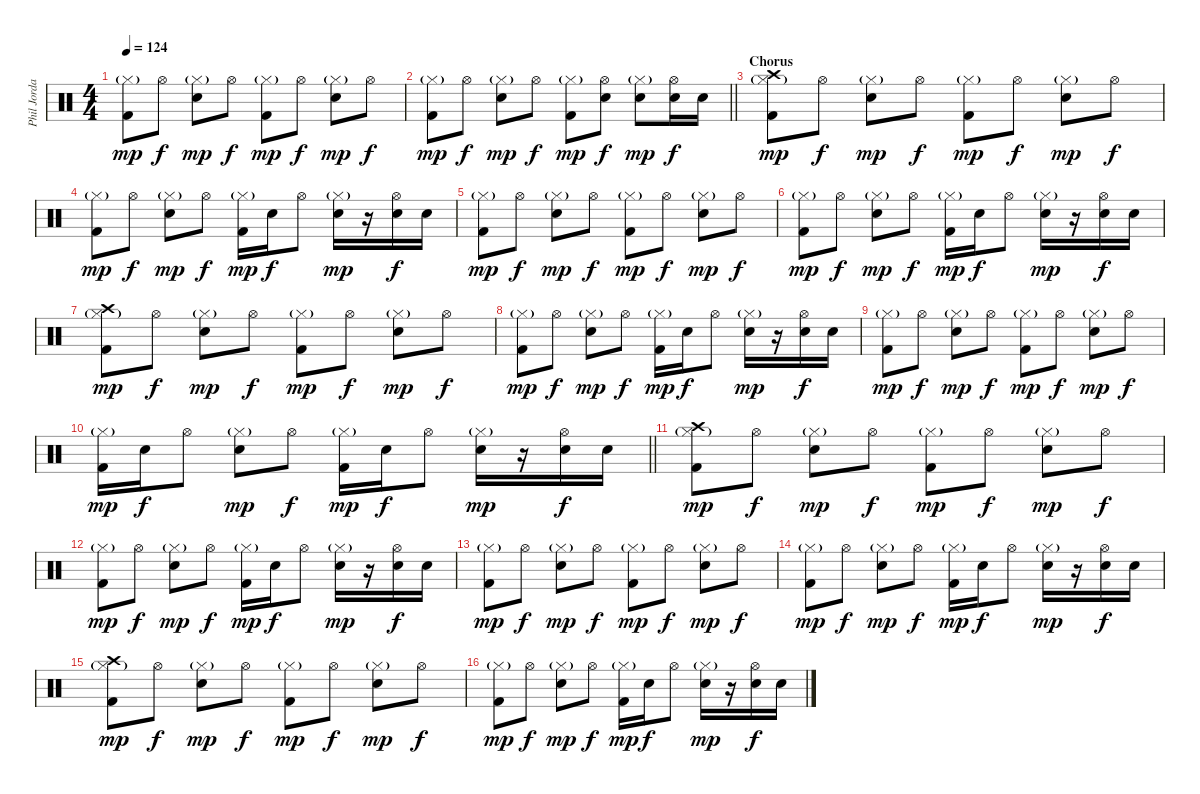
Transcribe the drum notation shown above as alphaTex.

\track ("Phil Jordan (Drums)" "Phil Jorda") {instrument percussion}
\staff {score}
\articulation defaults
\ts (4 4)
\tempo 124
\clef neutral
\ks c
("Hi-Hat (closed)"{g} "Kick (hit) 2").8{dy mp} "Hi-Hat (open)".8{dy f} ("Hi-Hat (closed)"{g} "Electric Snare (hit)").8{dy mp} "Hi-Hat (open)".8{dy f} ("Hi-Hat (closed)"{g} "Kick (hit) 2").8{dy mp} "Hi-Hat (open)".8{dy f} ("Hi-Hat (closed)"{g} "Electric Snare (hit)").8{dy mp} "Hi-Hat (open)".8{dy f} |
\barLineRight lightlight
("Hi-Hat (closed)"{g} "Kick (hit) 2").8{dy mp} "Hi-Hat (open)".8{dy f} ("Hi-Hat (closed)"{g} "Electric Snare (hit)").8{dy mp} "Hi-Hat (open)".8{dy f} ("Hi-Hat (closed)"{g} "Kick (hit) 2").8{dy mp} ("Hi-Hat (open)" "Electric Snare (hit)").8{dy f} ("Hi-Hat (closed)"{g} "Electric Snare (hit)").8{dy mp} ("Hi-Hat (open)" "Electric Snare (hit)").16{dy f} "Electric Snare (hit)".16 |
\section ("" "Chorus")
("Crash high (hit)" "Hi-Hat (closed)"{g} "Kick (hit) 2").8{dy mp} "Hi-Hat (open)".8{dy f} ("Hi-Hat (closed)"{g} "Electric Snare (hit)").8{dy mp} "Hi-Hat (open)".8{dy f} ("Hi-Hat (closed)"{g} "Kick (hit) 2").8{dy mp} "Hi-Hat (open)".8{dy f} ("Hi-Hat (closed)"{g} "Electric Snare (hit)").8{dy mp} "Hi-Hat (open)".8{dy f} |
("Hi-Hat (closed)"{g} "Kick (hit) 2").8{dy mp} "Hi-Hat (open)".8{dy f} ("Hi-Hat (closed)"{g} "Electric Snare (hit)").8{dy mp} "Hi-Hat (open)".8{dy f} ("Hi-Hat (closed)"{g} "Kick (hit) 2").16{dy mp} "Electric Snare (hit)".16{dy f} "Hi-Hat (open)".8 ("Hi-Hat (closed)"{g} "Electric Snare (hit)").16{dy mp} r.16 ("Hi-Hat (open)" "Electric Snare (hit)").16{dy f} "Electric Snare (hit)".16 |
("Hi-Hat (closed)"{g} "Kick (hit) 2").8{dy mp} "Hi-Hat (open)".8{dy f} ("Hi-Hat (closed)"{g} "Electric Snare (hit)").8{dy mp} "Hi-Hat (open)".8{dy f} ("Hi-Hat (closed)"{g} "Kick (hit) 2").8{dy mp} "Hi-Hat (open)".8{dy f} ("Hi-Hat (closed)"{g} "Electric Snare (hit)").8{dy mp} "Hi-Hat (open)".8{dy f} |
("Hi-Hat (closed)"{g} "Kick (hit) 2").8{dy mp} "Hi-Hat (open)".8{dy f} ("Hi-Hat (closed)"{g} "Electric Snare (hit)").8{dy mp} "Hi-Hat (open)".8{dy f} ("Hi-Hat (closed)"{g} "Kick (hit) 2").16{dy mp} "Electric Snare (hit)".16{dy f} "Hi-Hat (open)".8 ("Hi-Hat (closed)"{g} "Electric Snare (hit)").16{dy mp} r.16 ("Hi-Hat (open)" "Electric Snare (hit)").16{dy f} "Electric Snare (hit)".16 |
("Crash high (hit)" "Hi-Hat (closed)"{g} "Kick (hit) 2").8{dy mp} "Hi-Hat (open)".8{dy f} ("Hi-Hat (closed)"{g} "Electric Snare (hit)").8{dy mp} "Hi-Hat (open)".8{dy f} ("Hi-Hat (closed)"{g} "Kick (hit) 2").8{dy mp} "Hi-Hat (open)".8{dy f} ("Hi-Hat (closed)"{g} "Electric Snare (hit)").8{dy mp} "Hi-Hat (open)".8{dy f} |
("Hi-Hat (closed)"{g} "Kick (hit) 2").8{dy mp} "Hi-Hat (open)".8{dy f} ("Hi-Hat (closed)"{g} "Electric Snare (hit)").8{dy mp} "Hi-Hat (open)".8{dy f} ("Hi-Hat (closed)"{g} "Kick (hit) 2").16{dy mp} "Electric Snare (hit)".16{dy f} "Hi-Hat (open)".8 ("Hi-Hat (closed)"{g} "Electric Snare (hit)").16{dy mp} r.16 ("Hi-Hat (open)" "Electric Snare (hit)").16{dy f} "Electric Snare (hit)".16 |
("Hi-Hat (closed)"{g} "Kick (hit) 2").8{dy mp} "Hi-Hat (open)".8{dy f} ("Hi-Hat (closed)"{g} "Electric Snare (hit)").8{dy mp} "Hi-Hat (open)".8{dy f} ("Hi-Hat (closed)"{g} "Kick (hit) 2").8{dy mp} "Hi-Hat (open)".8{dy f} ("Hi-Hat (closed)"{g} "Electric Snare (hit)").8{dy mp} "Hi-Hat (open)".8{dy f} |
\barLineRight lightlight
("Hi-Hat (closed)"{g} "Kick (hit) 2").16{dy mp} "Electric Snare (hit)".16{dy f} "Hi-Hat (open)".8 ("Hi-Hat (closed)"{g} "Electric Snare (hit)").8{dy mp} "Hi-Hat (open)".8{dy f} ("Hi-Hat (closed)"{g} "Kick (hit) 2").16{dy mp} "Electric Snare (hit)".16{dy f} "Hi-Hat (open)".8 ("Hi-Hat (closed)"{g} "Electric Snare (hit)").16{dy mp} r.16 ("Hi-Hat (open)" "Electric Snare (hit)").16{dy f} "Electric Snare (hit)".16 |
("Crash high (hit)" "Hi-Hat (closed)"{g} "Kick (hit) 2").8{dy mp} "Hi-Hat (open)".8{dy f} ("Hi-Hat (closed)"{g} "Electric Snare (hit)").8{dy mp} "Hi-Hat (open)".8{dy f} ("Hi-Hat (closed)"{g} "Kick (hit) 2").8{dy mp} "Hi-Hat (open)".8{dy f} ("Hi-Hat (closed)"{g} "Electric Snare (hit)").8{dy mp} "Hi-Hat (open)".8{dy f} |
("Hi-Hat (closed)"{g} "Kick (hit) 2").8{dy mp} "Hi-Hat (open)".8{dy f} ("Hi-Hat (closed)"{g} "Electric Snare (hit)").8{dy mp} "Hi-Hat (open)".8{dy f} ("Hi-Hat (closed)"{g} "Kick (hit) 2").16{dy mp} "Electric Snare (hit)".16{dy f} "Hi-Hat (open)".8 ("Hi-Hat (closed)"{g} "Electric Snare (hit)").16{dy mp} r.16 ("Hi-Hat (open)" "Electric Snare (hit)").16{dy f} "Electric Snare (hit)".16 |
("Hi-Hat (closed)"{g} "Kick (hit) 2").8{dy mp} "Hi-Hat (open)".8{dy f} ("Hi-Hat (closed)"{g} "Electric Snare (hit)").8{dy mp} "Hi-Hat (open)".8{dy f} ("Hi-Hat (closed)"{g} "Kick (hit) 2").8{dy mp} "Hi-Hat (open)".8{dy f} ("Hi-Hat (closed)"{g} "Electric Snare (hit)").8{dy mp} "Hi-Hat (open)".8{dy f} |
("Hi-Hat (closed)"{g} "Kick (hit) 2").8{dy mp} "Hi-Hat (open)".8{dy f} ("Hi-Hat (closed)"{g} "Electric Snare (hit)").8{dy mp} "Hi-Hat (open)".8{dy f} ("Hi-Hat (closed)"{g} "Kick (hit) 2").16{dy mp} "Electric Snare (hit)".16{dy f} "Hi-Hat (open)".8 ("Hi-Hat (closed)"{g} "Electric Snare (hit)").16{dy mp} r.16 ("Hi-Hat (open)" "Electric Snare (hit)").16{dy f} "Electric Snare (hit)".16 |
("Crash high (hit)" "Hi-Hat (closed)"{g} "Kick (hit) 2").8{dy mp} "Hi-Hat (open)".8{dy f} ("Hi-Hat (closed)"{g} "Electric Snare (hit)").8{dy mp} "Hi-Hat (open)".8{dy f} ("Hi-Hat (closed)"{g} "Kick (hit) 2").8{dy mp} "Hi-Hat (open)".8{dy f} ("Hi-Hat (closed)"{g} "Electric Snare (hit)").8{dy mp} "Hi-Hat (open)".8{dy f} |
("Hi-Hat (closed)"{g} "Kick (hit) 2").8{dy mp} "Hi-Hat (open)".8{dy f} ("Hi-Hat (closed)"{g} "Electric Snare (hit)").8{dy mp} "Hi-Hat (open)".8{dy f} ("Hi-Hat (closed)"{g} "Kick (hit) 2").16{dy mp} "Electric Snare (hit)".16{dy f} "Hi-Hat (open)".8 ("Hi-Hat (closed)"{g} "Electric Snare (hit)").16{dy mp} r.16 ("Hi-Hat (open)" "Electric Snare (hit)").16{dy f} "Electric Snare (hit)".16
